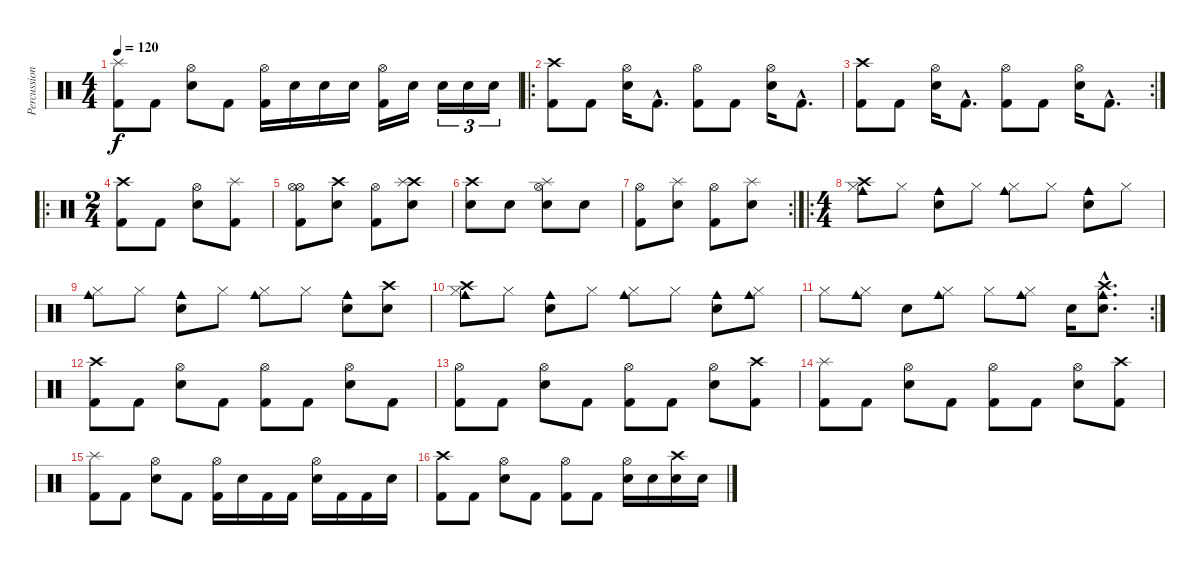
\track ("Percussion" "Percussion") {instrument percussion}
\staff {score}
\articulation defaults
\ts (4 4)
\tempo 120
\clef neutral
\ks c
("Splash (hit)" "Kick (hit) 2").8{dy f} "Kick (hit) 2".8 ("Hi-Hat (open)" "Electric Snare (hit)").8 "Kick (hit) 2".8 ("Hi-Hat (open)" "Kick (hit) 2").16 "Electric Snare (hit)".16 "Electric Snare (hit)".16 "Electric Snare (hit)".16 ("Hi-Hat (open)" "Kick (hit) 2").16 "Electric Snare (hit)".16 "Electric Snare (hit)".16{tu (3 2)} "Electric Snare (hit)".16{tu (3 2)} "Electric Snare (hit)".16{tu (3 2)} |
\ro
("Crash high (hit)" "Kick (hit) 2").8 "Kick (hit) 2".8 ("Hi-Hat (open)" "Electric Snare (hit)").16 "Kick (hit) 2"{hac}.8{d} ("Hi-Hat (open)" "Kick (hit) 2").8 "Kick (hit) 2".8 ("Hi-Hat (open)" "Electric Snare (hit)").16 "Kick (hit) 2"{hac}.8{d} |
\rc 2
("Crash high (hit)" "Kick (hit) 2").8 "Kick (hit) 2".8 ("Hi-Hat (open)" "Electric Snare (hit)").16 "Kick (hit) 2"{hac}.8{d} ("Hi-Hat (open)" "Kick (hit) 2").8 "Kick (hit) 2".8 ("Hi-Hat (open)" "Electric Snare (hit)").16 "Kick (hit) 2"{hac}.8{d} |
\ro
\ts (2 4)
("Crash high (hit)" "Kick (hit) 2").8 "Kick (hit) 2".8 ("Hi-Hat (open)" "Electric Snare (hit)").8 ("Kick (hit) 2" "Splash (hit)").8 |
("Hi-Hat (open)" "Kick (hit) 2" "Hi-Hat (open)").8 ("Crash high (hit)" "Electric Snare (hit)").8 ("Hi-Hat (open)" "Kick (hit) 2").8 ("Crash high (hit)" "Electric Snare (hit)" "Splash (hit)").8 |
("Crash high (hit)" "Electric Snare (hit)").8 "Electric Snare (hit)".8 ("Hi-Hat (open)" "Electric Snare (hit)" "Splash (hit)").8 "Electric Snare (hit)".8 |
\rc 2
("Hi-Hat (open)" "Kick (hit) 2").8 ("Electric Snare (hit)" "Splash (hit)").8 ("Hi-Hat (open)" "Kick (hit) 2").8 ("Electric Snare (hit)" "Splash (hit)").8 |
\ro
\ts (4 4)
("Crash high (hit)" "Hi-Hat (closed)" "Cowbell medium (hit)").8 "Hi-Hat (closed)".8 ("Electric Snare (hit)" "Cowbell medium (hit)").8 "Hi-Hat (closed)".8 ("Hi-Hat (closed)" "Cowbell medium (hit)").8 "Hi-Hat (closed)".8 ("Electric Snare (hit)" "Cowbell medium (hit)").8 "Hi-Hat (closed)".8 |
("Hi-Hat (closed)" "Cowbell medium (hit)").8 "Hi-Hat (closed)".8 ("Electric Snare (hit)" "Cowbell medium (hit)").8 "Hi-Hat (closed)".8 ("Hi-Hat (closed)" "Cowbell medium (hit)").8 "Hi-Hat (closed)".8 ("Electric Snare (hit)" "Cowbell medium (hit)").8 ("Crash high (hit)" "Electric Snare (hit)").8 |
("Crash high (hit)" "Hi-Hat (closed)" "Cowbell medium (hit)").8 "Hi-Hat (closed)".8 ("Electric Snare (hit)" "Cowbell medium (hit)").8 "Hi-Hat (closed)".8 ("Hi-Hat (closed)" "Cowbell medium (hit)").8 "Hi-Hat (closed)".8 ("Electric Snare (hit)" "Cowbell medium (hit)").8 ("Hi-Hat (closed)" "Cowbell medium (hit)").8 |
\rc 2 "Hi-Hat (closed)".8
("Hi-Hat (closed)" "Cowbell medium (hit)").8 "Electric Snare (hit)".8 ("Hi-Hat (closed)" "Cowbell medium (hit)").8 "Hi-Hat (closed)".8 ("Hi-Hat (closed)" "Cowbell medium (hit)").8 "Electric Snare (hit)".16 ("Crash high (hit)"{hac} "Electric Snare (hit)"{hac} "Cowbell medium (hit)"{hac}).8{d} |
("Crash high (hit)" "Kick (hit) 2").8 "Kick (hit) 2".8 ("Hi-Hat (open)" "Electric Snare (hit)").8 "Kick (hit) 2".8 ("Hi-Hat (open)" "Kick (hit) 2").8 "Kick (hit) 2".8 ("Hi-Hat (open)" "Electric Snare (hit)").8 "Kick (hit) 2".8 |
("Hi-Hat (open)" "Kick (hit) 2").8 "Kick (hit) 2".8 ("Hi-Hat (open)" "Electric Snare (hit)").8 "Kick (hit) 2".8 ("Hi-Hat (open)" "Kick (hit) 2").8 "Kick (hit) 2".8 ("Hi-Hat (open)" "Electric Snare (hit)").8 ("Crash high (hit)" "Kick (hit) 2").8 |
("Splash (hit)" "Kick (hit) 2").8 "Kick (hit) 2".8 ("Hi-Hat (open)" "Electric Snare (hit)").8 "Kick (hit) 2".8 ("Hi-Hat (open)" "Kick (hit) 2").8 "Kick (hit) 2".8 ("Hi-Hat (open)" "Electric Snare (hit)").8 ("Crash high (hit)" "Kick (hit) 2").8 |
("Splash (hit)" "Kick (hit) 2").8 "Kick (hit) 2".8 ("Hi-Hat (open)" "Electric Snare (hit)").8 "Kick (hit) 2".8 ("Hi-Hat (open)" "Kick (hit) 2").16 "Electric Snare (hit)".16 "Kick (hit) 2".16 "Kick (hit) 2".16 ("Hi-Hat (open)" "Electric Snare (hit)").16 "Kick (hit) 2".16 "Kick (hit) 2".16 "Electric Snare (hit)".16 |
("Crash high (hit)" "Kick (hit) 2").8 "Kick (hit) 2".8 ("Hi-Hat (open)" "Electric Snare (hit)").8 "Kick (hit) 2".8 ("Hi-Hat (open)" "Kick (hit) 2").8 "Kick (hit) 2".8 ("Hi-Hat (open)" "Electric Snare (hit)").16 "Electric Snare (hit)".16 ("Crash high (hit)" "Electric Snare (hit)").16 "Electric Snare (hit)".16
